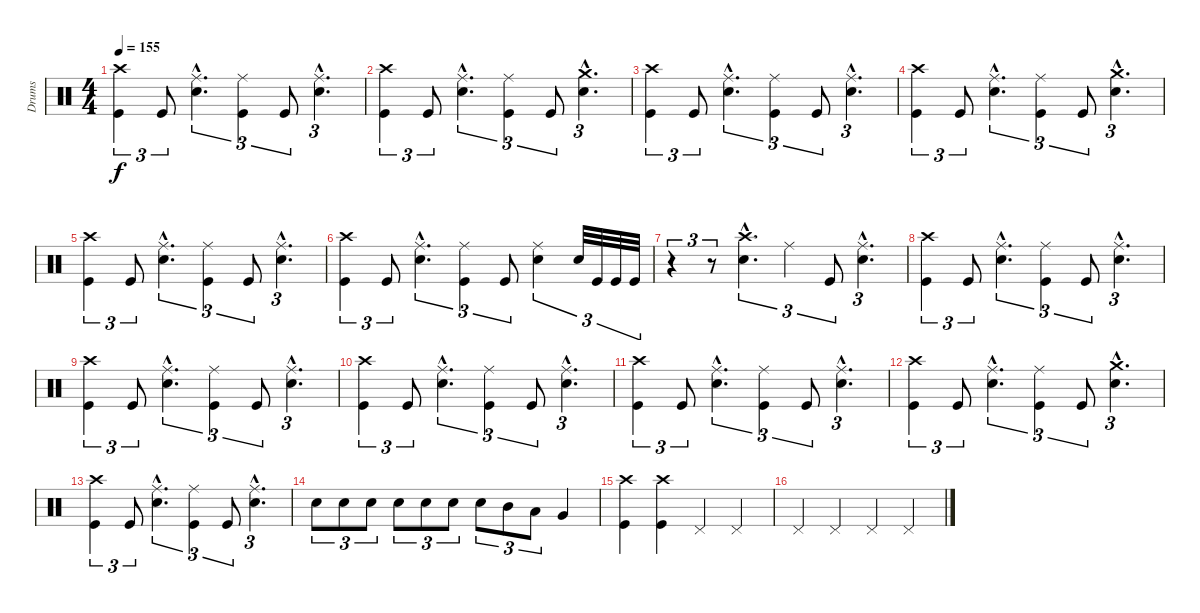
\track ("Drums" "Drums") {instrument percussion}
\staff {score}
\articulation defaults
\ts (4 4)
\tempo 155
\clef neutral
\ks c
("Crash high (hit)" "Kick (hit)").4{tu (3 2) dy f} "Kick (hit)".8{tu (3 2)} ("Ride (middle)"{hac} "Snare (hit) 2"{hac}).4{d tu (3 2)} ("Ride (middle)" "Kick (hit)").4{tu (3 2)} "Kick (hit)".8{tu (3 2)} ("Ride (middle)"{hac} "Snare (hit) 2"{hac}).4{d tu (3 2)} |
("Crash high (hit)" "Kick (hit)").4{tu (3 2)} "Kick (hit)".8{tu (3 2)} ("Ride (middle)"{hac} "Snare (hit) 2"{hac}).4{d tu (3 2)} ("Ride (middle)" "Kick (hit)").4{tu (3 2)} "Kick (hit)".8{tu (3 2)} ("Crash medium (hit)"{hac} "Snare (hit) 2"{hac}).4{d tu (3 2)} |
("Crash high (hit)" "Kick (hit)").4{tu (3 2)} "Kick (hit)".8{tu (3 2)} ("Ride (middle)"{hac} "Snare (hit) 2"{hac}).4{d tu (3 2)} ("Ride (middle)" "Kick (hit)").4{tu (3 2)} "Kick (hit)".8{tu (3 2)} ("Ride (middle)"{hac} "Snare (hit) 2"{hac}).4{d tu (3 2)} |
("Crash high (hit)" "Kick (hit)").4{tu (3 2)} "Kick (hit)".8{tu (3 2)} ("Ride (middle)"{hac} "Snare (hit) 2"{hac}).4{d tu (3 2)} ("Ride (middle)" "Kick (hit)").4{tu (3 2)} "Kick (hit)".8{tu (3 2)} ("Crash medium (hit)"{hac} "Snare (hit) 2"{hac}).4{d tu (3 2)} |
("Crash high (hit)" "Kick (hit)").4{tu (3 2)} "Kick (hit)".8{tu (3 2)} ("Ride (middle)"{hac} "Snare (hit) 2"{hac}).4{d tu (3 2)} ("Ride (middle)" "Kick (hit)").4{tu (3 2)} "Kick (hit)".8{tu (3 2)} ("Ride (middle)"{hac} "Snare (hit) 2"{hac}).4{d tu (3 2)} |
("Crash high (hit)" "Kick (hit)").4{tu (3 2)} "Kick (hit)".8{tu (3 2)} ("Ride (middle)"{hac} "Snare (hit) 2"{hac}).4{d tu (3 2)} ("Ride (middle)" "Kick (hit)").4{tu (3 2)} "Kick (hit)".8{tu (3 2)} ("Ride (middle)" "Snare (hit) 2").4{tu (3 2)} "Snare (hit) 2".32{tu (3 2)} "Kick (hit)".32{tu (3 2)} "Kick (hit)".32{tu (3 2)} "Kick (hit)".32{tu (3 2)} |
r.4{tu (3 2)} r.8{tu (3 2)} ("Crash high (hit)"{hac} "Snare (hit) 2"{hac}).4{d tu (3 2)} "Ride (middle)".4{tu (3 2)} "Kick (hit)".8{tu (3 2)} ("Ride (middle)"{hac} "Snare (hit) 2"{hac}).4{d tu (3 2)} |
("Crash high (hit)" "Kick (hit)").4{tu (3 2)} "Kick (hit)".8{tu (3 2)} ("Ride (middle)"{hac} "Snare (hit) 2"{hac}).4{d tu (3 2)} ("Ride (middle)" "Kick (hit)").4{tu (3 2)} "Kick (hit)".8{tu (3 2)} ("Ride (middle)"{hac} "Snare (hit) 2"{hac}).4{d tu (3 2)} |
("Crash high (hit)" "Kick (hit)").4{tu (3 2)} "Kick (hit)".8{tu (3 2)} ("Ride (middle)"{hac} "Snare (hit) 2"{hac}).4{d tu (3 2)} ("Ride (middle)" "Kick (hit)").4{tu (3 2)} "Kick (hit)".8{tu (3 2)} ("Ride (middle)"{hac} "Snare (hit) 2"{hac}).4{d tu (3 2)} |
("Crash high (hit)" "Kick (hit)").4{tu (3 2)} "Kick (hit)".8{tu (3 2)} ("Ride (middle)"{hac} "Snare (hit) 2"{hac}).4{d tu (3 2)} ("Ride (middle)" "Kick (hit)").4{tu (3 2)} "Kick (hit)".8{tu (3 2)} ("Ride (middle)"{hac} "Snare (hit) 2"{hac}).4{d tu (3 2)} |
("Crash high (hit)" "Kick (hit)").4{tu (3 2)} "Kick (hit)".8{tu (3 2)} ("Ride (middle)"{hac} "Snare (hit) 2"{hac}).4{d tu (3 2)} ("Ride (middle)" "Kick (hit)").4{tu (3 2)} "Kick (hit)".8{tu (3 2)} ("Ride (middle)"{hac} "Snare (hit) 2"{hac}).4{d tu (3 2)} |
("Crash high (hit)" "Kick (hit)").4{tu (3 2)} "Kick (hit)".8{tu (3 2)} ("Ride (middle)"{hac} "Snare (hit) 2"{hac}).4{d tu (3 2)} ("Ride (middle)" "Kick (hit)").4{tu (3 2)} "Kick (hit)".8{tu (3 2)} ("Crash medium (hit)"{hac} "Snare (hit) 2"{hac}).4{d tu (3 2)} |
("Crash high (hit)" "Kick (hit)").4{tu (3 2)} "Kick (hit)".8{tu (3 2)} ("Ride (middle)"{hac} "Snare (hit) 2"{hac}).4{d tu (3 2)} ("Ride (middle)" "Kick (hit)").4{tu (3 2)} "Kick (hit)".8{tu (3 2)} ("Ride (middle)"{hac} "Snare (hit) 2"{hac}).4{d tu (3 2)} |
"Snare (hit) 2".8{tu (3 2)} "Snare (hit) 2".8{tu (3 2)} "Snare (hit) 2".8{tu (3 2)} "Snare (hit) 2".8{tu (3 2)} "Snare (hit) 2".8{tu (3 2)} "Snare (hit) 2".8{tu (3 2)} "Snare (hit) 2".8{tu (3 2)} "Mid Tom (hit)".8{tu (3 2)} "Low Tom (hit)".8{tu (3 2)} "Very Low Tom (hit)".4 |
("Crash high (hit)" "Kick (hit)").4 ("Crash high (hit)" "Kick (hit)").4 "Pedal Hi-Hat (hit)".4 "Pedal Hi-Hat (hit)".4 |
"Pedal Hi-Hat (hit)".4 "Pedal Hi-Hat (hit)".4 "Pedal Hi-Hat (hit)".4 "Pedal Hi-Hat (hit)".4
